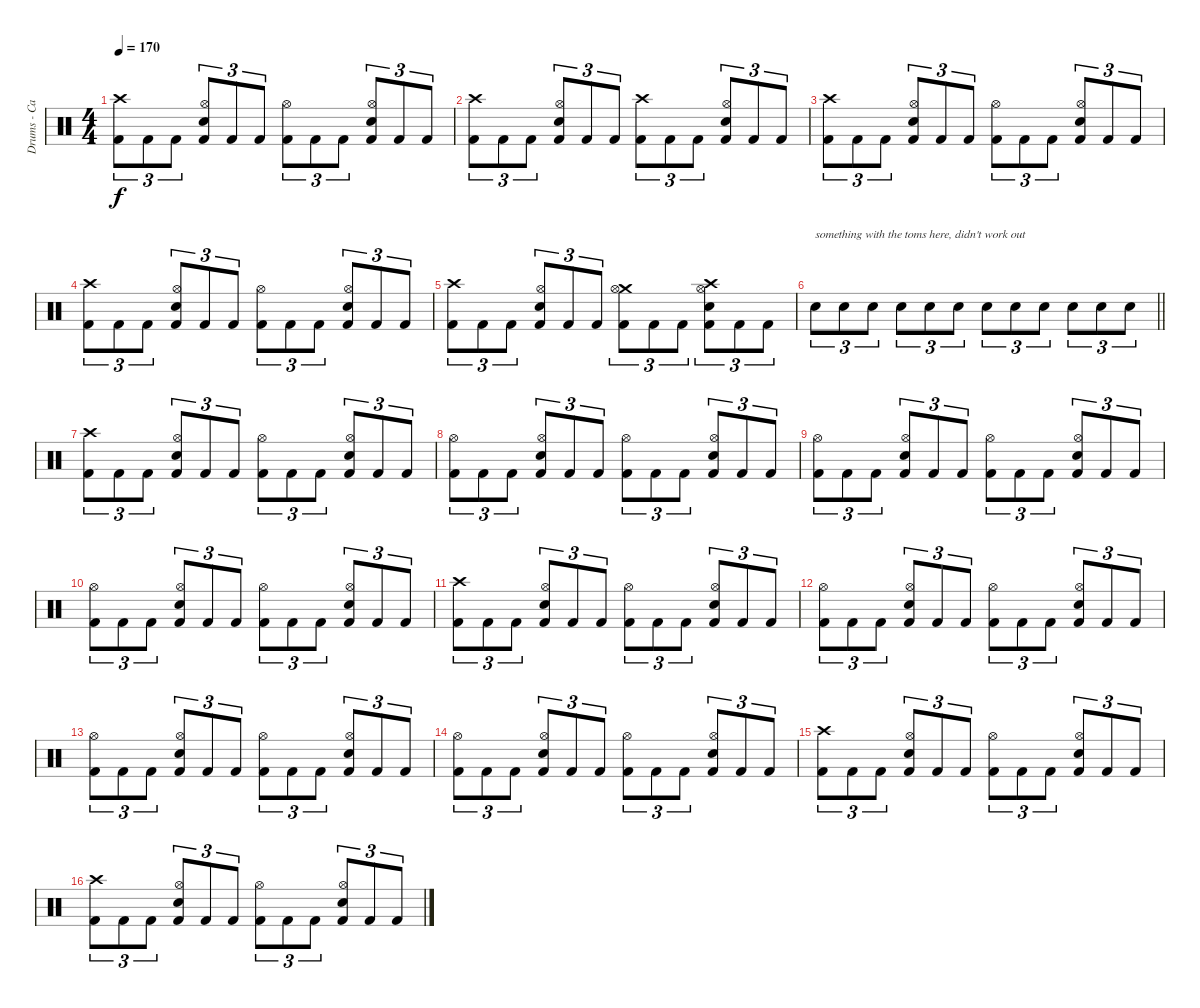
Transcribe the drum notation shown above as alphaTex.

\track ("Drums - Casey Grillo" "Drums - Ca") {instrument percussion}
\staff {score}
\articulation defaults
\ts (4 4)
\tempo 170
\clef neutral
\ks c
("Crash high (hit)" "Kick (hit) 2").8{tu (3 2) dy f} "Kick (hit) 2".8{tu (3 2)} "Kick (hit) 2".8{tu (3 2)} ("Hi-Hat (open)" "Snare (hit) 2" "Kick (hit) 2").8{tu (3 2)} "Kick (hit) 2".8{tu (3 2)} "Kick (hit) 2".8{tu (3 2)} ("Hi-Hat (open)" "Kick (hit) 2").8{tu (3 2)} "Kick (hit) 2".8{tu (3 2)} "Kick (hit) 2".8{tu (3 2)} ("Hi-Hat (open)" "Snare (hit) 2" "Kick (hit) 2").8{tu (3 2)} "Kick (hit) 2".8{tu (3 2)} "Kick (hit) 2".8{tu (3 2)} |
("Crash high (hit)" "Kick (hit) 2").8{tu (3 2)} "Kick (hit) 2".8{tu (3 2)} "Kick (hit) 2".8{tu (3 2)} ("Hi-Hat (open)" "Snare (hit) 2" "Kick (hit) 2").8{tu (3 2)} "Kick (hit) 2".8{tu (3 2)} "Kick (hit) 2".8{tu (3 2)} ("Crash high (hit)" "Kick (hit) 2").8{tu (3 2)} "Kick (hit) 2".8{tu (3 2)} "Kick (hit) 2".8{tu (3 2)} ("Hi-Hat (open)" "Snare (hit) 2" "Kick (hit) 2").8{tu (3 2)} "Kick (hit) 2".8{tu (3 2)} "Kick (hit) 2".8{tu (3 2)} |
("Crash high (hit)" "Kick (hit) 2").8{tu (3 2)} "Kick (hit) 2".8{tu (3 2)} "Kick (hit) 2".8{tu (3 2)} ("Hi-Hat (open)" "Snare (hit) 2" "Kick (hit) 2").8{tu (3 2)} "Kick (hit) 2".8{tu (3 2)} "Kick (hit) 2".8{tu (3 2)} ("Hi-Hat (open)" "Kick (hit) 2").8{tu (3 2)} "Kick (hit) 2".8{tu (3 2)} "Kick (hit) 2".8{tu (3 2)} ("Hi-Hat (open)" "Snare (hit) 2" "Kick (hit) 2").8{tu (3 2)} "Kick (hit) 2".8{tu (3 2)} "Kick (hit) 2".8{tu (3 2)} |
("Crash high (hit)" "Kick (hit) 2").8{tu (3 2)} "Kick (hit) 2".8{tu (3 2)} "Kick (hit) 2".8{tu (3 2)} ("Hi-Hat (open)" "Snare (hit) 2" "Kick (hit) 2").8{tu (3 2)} "Kick (hit) 2".8{tu (3 2)} "Kick (hit) 2".8{tu (3 2)} ("Hi-Hat (open)" "Kick (hit) 2").8{tu (3 2)} "Kick (hit) 2".8{tu (3 2)} "Kick (hit) 2".8{tu (3 2)} ("Hi-Hat (open)" "Snare (hit) 2" "Kick (hit) 2").8{tu (3 2)} "Kick (hit) 2".8{tu (3 2)} "Kick (hit) 2".8{tu (3 2)} |
("Crash high (hit)" "Kick (hit) 2").8{tu (3 2)} "Kick (hit) 2".8{tu (3 2)} "Kick (hit) 2".8{tu (3 2)} ("Hi-Hat (open)" "Snare (hit) 2" "Kick (hit) 2").8{tu (3 2)} "Kick (hit) 2".8{tu (3 2)} "Kick (hit) 2".8{tu (3 2)} ("Crash medium (hit)" "Hi-Hat (open)" "Kick (hit) 2").8{tu (3 2)} "Kick (hit) 2".8{tu (3 2)} "Kick (hit) 2".8{tu (3 2)} ("Crash high (hit)" "Hi-Hat (open)" "Snare (hit) 2" "Kick (hit) 2").8{tu (3 2)} "Kick (hit) 2".8{tu (3 2)} "Kick (hit) 2".8{tu (3 2)} |
\barLineRight lightlight "Snare (hit) 2".8{tu (3 2) txt "something with the toms here, didn't work out"} "Snare (hit) 2".8{tu (3 2)} "Snare (hit) 2".8{tu (3 2)} "Snare (hit) 2".8{tu (3 2)} "Snare (hit) 2".8{tu (3 2)} "Snare (hit) 2".8{tu (3 2)} "Snare (hit) 2".8{tu (3 2)} "Snare (hit) 2".8{tu (3 2)} "Snare (hit) 2".8{tu (3 2)} "Snare (hit) 2".8{tu (3 2)} "Snare (hit) 2".8{tu (3 2)} "Snare (hit) 2".8{tu (3 2)}
|
("Crash high (hit)" "Kick (hit) 2").8{tu (3 2)} "Kick (hit) 2".8{tu (3 2)} "Kick (hit) 2".8{tu (3 2)} ("Hi-Hat (open)" "Snare (hit) 2" "Kick (hit) 2").8{tu (3 2)} "Kick (hit) 2".8{tu (3 2)} "Kick (hit) 2".8{tu (3 2)} ("Hi-Hat (open)" "Kick (hit) 2").8{tu (3 2)} "Kick (hit) 2".8{tu (3 2)} "Kick (hit) 2".8{tu (3 2)} ("Hi-Hat (open)" "Snare (hit) 2" "Kick (hit) 2").8{tu (3 2)} "Kick (hit) 2".8{tu (3 2)} "Kick (hit) 2".8{tu (3 2)} |
("Hi-Hat (open)" "Kick (hit) 2").8{tu (3 2)} "Kick (hit) 2".8{tu (3 2)} "Kick (hit) 2".8{tu (3 2)} ("Hi-Hat (open)" "Snare (hit) 2" "Kick (hit) 2").8{tu (3 2)} "Kick (hit) 2".8{tu (3 2)} "Kick (hit) 2".8{tu (3 2)} ("Hi-Hat (open)" "Kick (hit) 2").8{tu (3 2)} "Kick (hit) 2".8{tu (3 2)} "Kick (hit) 2".8{tu (3 2)} ("Hi-Hat (open)" "Snare (hit) 2" "Kick (hit) 2").8{tu (3 2)} "Kick (hit) 2".8{tu (3 2)} "Kick (hit) 2".8{tu (3 2)} |
("Hi-Hat (open)" "Kick (hit) 2").8{tu (3 2)} "Kick (hit) 2".8{tu (3 2)} "Kick (hit) 2".8{tu (3 2)} ("Hi-Hat (open)" "Snare (hit) 2" "Kick (hit) 2").8{tu (3 2)} "Kick (hit) 2".8{tu (3 2)} "Kick (hit) 2".8{tu (3 2)} ("Hi-Hat (open)" "Kick (hit) 2").8{tu (3 2)} "Kick (hit) 2".8{tu (3 2)} "Kick (hit) 2".8{tu (3 2)} ("Hi-Hat (open)" "Snare (hit) 2" "Kick (hit) 2").8{tu (3 2)} "Kick (hit) 2".8{tu (3 2)} "Kick (hit) 2".8{tu (3 2)} |
("Hi-Hat (open)" "Kick (hit) 2").8{tu (3 2)} "Kick (hit) 2".8{tu (3 2)} "Kick (hit) 2".8{tu (3 2)} ("Hi-Hat (open)" "Snare (hit) 2" "Kick (hit) 2").8{tu (3 2)} "Kick (hit) 2".8{tu (3 2)} "Kick (hit) 2".8{tu (3 2)} ("Hi-Hat (open)" "Kick (hit) 2").8{tu (3 2)} "Kick (hit) 2".8{tu (3 2)} "Kick (hit) 2".8{tu (3 2)} ("Hi-Hat (open)" "Snare (hit) 2" "Kick (hit) 2").8{tu (3 2)} "Kick (hit) 2".8{tu (3 2)} "Kick (hit) 2".8{tu (3 2)} |
("Crash high (hit)" "Kick (hit) 2").8{tu (3 2)} "Kick (hit) 2".8{tu (3 2)} "Kick (hit) 2".8{tu (3 2)} ("Hi-Hat (open)" "Snare (hit) 2" "Kick (hit) 2").8{tu (3 2)} "Kick (hit) 2".8{tu (3 2)} "Kick (hit) 2".8{tu (3 2)} ("Hi-Hat (open)" "Kick (hit) 2").8{tu (3 2)} "Kick (hit) 2".8{tu (3 2)} "Kick (hit) 2".8{tu (3 2)} ("Hi-Hat (open)" "Snare (hit) 2" "Kick (hit) 2").8{tu (3 2)} "Kick (hit) 2".8{tu (3 2)} "Kick (hit) 2".8{tu (3 2)} |
("Hi-Hat (open)" "Kick (hit) 2").8{tu (3 2)} "Kick (hit) 2".8{tu (3 2)} "Kick (hit) 2".8{tu (3 2)} ("Hi-Hat (open)" "Snare (hit) 2" "Kick (hit) 2").8{tu (3 2)} "Kick (hit) 2".8{tu (3 2)} "Kick (hit) 2".8{tu (3 2)} ("Hi-Hat (open)" "Kick (hit) 2").8{tu (3 2)} "Kick (hit) 2".8{tu (3 2)} "Kick (hit) 2".8{tu (3 2)} ("Hi-Hat (open)" "Snare (hit) 2" "Kick (hit) 2").8{tu (3 2)} "Kick (hit) 2".8{tu (3 2)} "Kick (hit) 2".8{tu (3 2)} |
("Hi-Hat (open)" "Kick (hit) 2").8{tu (3 2)} "Kick (hit) 2".8{tu (3 2)} "Kick (hit) 2".8{tu (3 2)} ("Hi-Hat (open)" "Snare (hit) 2" "Kick (hit) 2").8{tu (3 2)} "Kick (hit) 2".8{tu (3 2)} "Kick (hit) 2".8{tu (3 2)} ("Hi-Hat (open)" "Kick (hit) 2").8{tu (3 2)} "Kick (hit) 2".8{tu (3 2)} "Kick (hit) 2".8{tu (3 2)} ("Hi-Hat (open)" "Snare (hit) 2" "Kick (hit) 2").8{tu (3 2)} "Kick (hit) 2".8{tu (3 2)} "Kick (hit) 2".8{tu (3 2)} |
("Hi-Hat (open)" "Kick (hit) 2").8{tu (3 2)} "Kick (hit) 2".8{tu (3 2)} "Kick (hit) 2".8{tu (3 2)} ("Hi-Hat (open)" "Snare (hit) 2" "Kick (hit) 2").8{tu (3 2)} "Kick (hit) 2".8{tu (3 2)} "Kick (hit) 2".8{tu (3 2)} ("Hi-Hat (open)" "Kick (hit) 2").8{tu (3 2)} "Kick (hit) 2".8{tu (3 2)} "Kick (hit) 2".8{tu (3 2)} ("Hi-Hat (open)" "Snare (hit) 2" "Kick (hit) 2").8{tu (3 2)} "Kick (hit) 2".8{tu (3 2)} "Kick (hit) 2".8{tu (3 2)} |
("Crash high (hit)" "Kick (hit) 2").8{tu (3 2)} "Kick (hit) 2".8{tu (3 2)} "Kick (hit) 2".8{tu (3 2)} ("Hi-Hat (open)" "Snare (hit) 2" "Kick (hit) 2").8{tu (3 2)} "Kick (hit) 2".8{tu (3 2)} "Kick (hit) 2".8{tu (3 2)} ("Hi-Hat (open)" "Kick (hit) 2").8{tu (3 2)} "Kick (hit) 2".8{tu (3 2)} "Kick (hit) 2".8{tu (3 2)} ("Hi-Hat (open)" "Snare (hit) 2" "Kick (hit) 2").8{tu (3 2)} "Kick (hit) 2".8{tu (3 2)} "Kick (hit) 2".8{tu (3 2)} |
("Crash high (hit)" "Kick (hit) 2").8{tu (3 2)} "Kick (hit) 2".8{tu (3 2)} "Kick (hit) 2".8{tu (3 2)} ("Hi-Hat (open)" "Snare (hit) 2" "Kick (hit) 2").8{tu (3 2)} "Kick (hit) 2".8{tu (3 2)} "Kick (hit) 2".8{tu (3 2)} ("Hi-Hat (open)" "Kick (hit) 2").8{tu (3 2)} "Kick (hit) 2".8{tu (3 2)} "Kick (hit) 2".8{tu (3 2)} ("Hi-Hat (open)" "Snare (hit) 2" "Kick (hit) 2").8{tu (3 2)} "Kick (hit) 2".8{tu (3 2)} "Kick (hit) 2".8{tu (3 2)}
